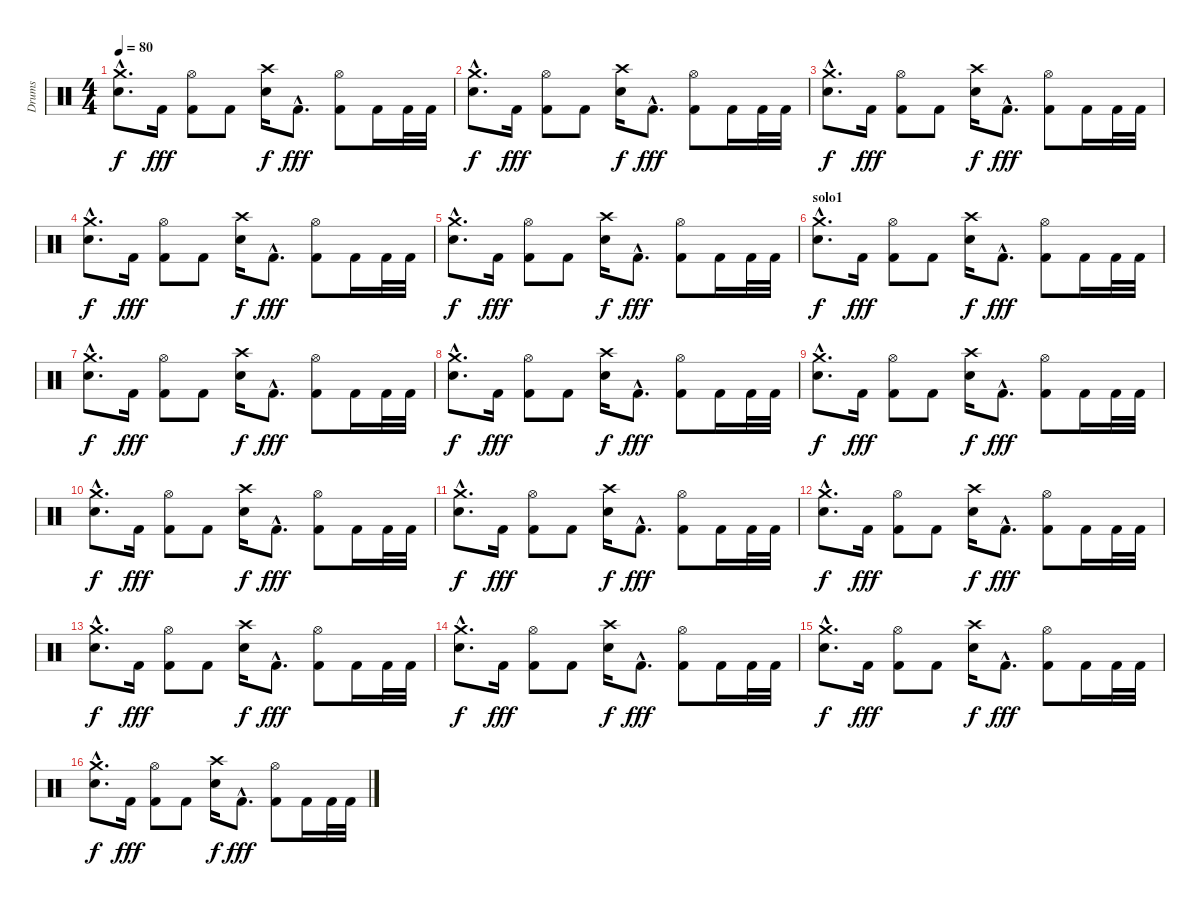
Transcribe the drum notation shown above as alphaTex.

\track ("Drums" "Drums") {instrument percussion}
\staff {score}
\articulation defaults
\ts (4 4)
\tempo 80
\clef neutral
\ks c
("Electric Snare (hit)"{hac} "Crash medium (hit)"{hac}).8{d dy f} "Kick (hit) 2".16{dy fff} ("Hi-Hat (open)" "Kick (hit) 2").8 "Kick (hit) 2".8 ("Crash high (hit)" "Electric Snare (hit)").16{dy f} "Kick (hit) 2"{hac}.8{d dy fff} ("Hi-Hat (open)" "Kick (hit) 2").8 "Kick (hit) 2".16 "Kick (hit) 2".32 "Kick (hit) 2".32 |
("Electric Snare (hit)"{hac} "Crash medium (hit)"{hac}).8{d dy f} "Kick (hit) 2".16{dy fff} ("Hi-Hat (open)" "Kick (hit) 2").8 "Kick (hit) 2".8 ("Crash high (hit)" "Electric Snare (hit)").16{dy f} "Kick (hit) 2"{hac}.8{d dy fff} ("Hi-Hat (open)" "Kick (hit) 2").8 "Kick (hit) 2".16 "Kick (hit) 2".32 "Kick (hit) 2".32 |
("Electric Snare (hit)"{hac} "Crash medium (hit)"{hac}).8{d dy f} "Kick (hit) 2".16{dy fff} ("Hi-Hat (open)" "Kick (hit) 2").8 "Kick (hit) 2".8 ("Crash high (hit)" "Electric Snare (hit)").16{dy f} "Kick (hit) 2"{hac}.8{d dy fff} ("Hi-Hat (open)" "Kick (hit) 2").8 "Kick (hit) 2".16 "Kick (hit) 2".32 "Kick (hit) 2".32 |
("Electric Snare (hit)"{hac} "Crash medium (hit)"{hac}).8{d dy f} "Kick (hit) 2".16{dy fff} ("Hi-Hat (open)" "Kick (hit) 2").8 "Kick (hit) 2".8 ("Crash high (hit)" "Electric Snare (hit)").16{dy f} "Kick (hit) 2"{hac}.8{d dy fff} ("Hi-Hat (open)" "Kick (hit) 2").8 "Kick (hit) 2".16 "Kick (hit) 2".32 "Kick (hit) 2".32 |
("Electric Snare (hit)"{hac} "Crash medium (hit)"{hac}).8{d dy f} "Kick (hit) 2".16{dy fff} ("Hi-Hat (open)" "Kick (hit) 2").8 "Kick (hit) 2".8 ("Crash high (hit)" "Electric Snare (hit)").16{dy f} "Kick (hit) 2"{hac}.8{d dy fff} ("Hi-Hat (open)" "Kick (hit) 2").8 "Kick (hit) 2".16 "Kick (hit) 2".32 "Kick (hit) 2".32 |
\section ("" "solo1")
("Electric Snare (hit)"{hac} "Crash medium (hit)"{hac}).8{d dy f} "Kick (hit) 2".16{dy fff} ("Hi-Hat (open)" "Kick (hit) 2").8 "Kick (hit) 2".8 ("Crash high (hit)" "Electric Snare (hit)").16{dy f} "Kick (hit) 2"{hac}.8{d dy fff} ("Hi-Hat (open)" "Kick (hit) 2").8 "Kick (hit) 2".16 "Kick (hit) 2".32 "Kick (hit) 2".32 |
("Electric Snare (hit)"{hac} "Crash medium (hit)"{hac}).8{d dy f} "Kick (hit) 2".16{dy fff} ("Hi-Hat (open)" "Kick (hit) 2").8 "Kick (hit) 2".8 ("Crash high (hit)" "Electric Snare (hit)").16{dy f} "Kick (hit) 2"{hac}.8{d dy fff} ("Hi-Hat (open)" "Kick (hit) 2").8 "Kick (hit) 2".16 "Kick (hit) 2".32 "Kick (hit) 2".32 |
("Electric Snare (hit)"{hac} "Crash medium (hit)"{hac}).8{d dy f} "Kick (hit) 2".16{dy fff} ("Hi-Hat (open)" "Kick (hit) 2").8 "Kick (hit) 2".8 ("Crash high (hit)" "Electric Snare (hit)").16{dy f} "Kick (hit) 2"{hac}.8{d dy fff} ("Hi-Hat (open)" "Kick (hit) 2").8 "Kick (hit) 2".16 "Kick (hit) 2".32 "Kick (hit) 2".32 |
("Electric Snare (hit)"{hac} "Crash medium (hit)"{hac}).8{d dy f} "Kick (hit) 2".16{dy fff} ("Hi-Hat (open)" "Kick (hit) 2").8 "Kick (hit) 2".8 ("Crash high (hit)" "Electric Snare (hit)").16{dy f} "Kick (hit) 2"{hac}.8{d dy fff} ("Hi-Hat (open)" "Kick (hit) 2").8 "Kick (hit) 2".16 "Kick (hit) 2".32 "Kick (hit) 2".32 |
("Electric Snare (hit)"{hac} "Crash medium (hit)"{hac}).8{d dy f} "Kick (hit) 2".16{dy fff} ("Hi-Hat (open)" "Kick (hit) 2").8 "Kick (hit) 2".8 ("Crash high (hit)" "Electric Snare (hit)").16{dy f} "Kick (hit) 2"{hac}.8{d dy fff} ("Hi-Hat (open)" "Kick (hit) 2").8 "Kick (hit) 2".16 "Kick (hit) 2".32 "Kick (hit) 2".32 |
("Electric Snare (hit)"{hac} "Crash medium (hit)"{hac}).8{d dy f} "Kick (hit) 2".16{dy fff} ("Hi-Hat (open)" "Kick (hit) 2").8 "Kick (hit) 2".8 ("Crash high (hit)" "Electric Snare (hit)").16{dy f} "Kick (hit) 2"{hac}.8{d dy fff} ("Hi-Hat (open)" "Kick (hit) 2").8 "Kick (hit) 2".16 "Kick (hit) 2".32 "Kick (hit) 2".32 |
("Electric Snare (hit)"{hac} "Crash medium (hit)"{hac}).8{d dy f} "Kick (hit) 2".16{dy fff} ("Hi-Hat (open)" "Kick (hit) 2").8 "Kick (hit) 2".8 ("Crash high (hit)" "Electric Snare (hit)").16{dy f} "Kick (hit) 2"{hac}.8{d dy fff} ("Hi-Hat (open)" "Kick (hit) 2").8 "Kick (hit) 2".16 "Kick (hit) 2".32 "Kick (hit) 2".32 |
("Electric Snare (hit)"{hac} "Crash medium (hit)"{hac}).8{d dy f} "Kick (hit) 2".16{dy fff} ("Hi-Hat (open)" "Kick (hit) 2").8 "Kick (hit) 2".8 ("Crash high (hit)" "Electric Snare (hit)").16{dy f} "Kick (hit) 2"{hac}.8{d dy fff} ("Hi-Hat (open)" "Kick (hit) 2").8 "Kick (hit) 2".16 "Kick (hit) 2".32 "Kick (hit) 2".32 |
("Electric Snare (hit)"{hac} "Crash medium (hit)"{hac}).8{d dy f} "Kick (hit) 2".16{dy fff} ("Hi-Hat (open)" "Kick (hit) 2").8 "Kick (hit) 2".8 ("Crash high (hit)" "Electric Snare (hit)").16{dy f} "Kick (hit) 2"{hac}.8{d dy fff} ("Hi-Hat (open)" "Kick (hit) 2").8 "Kick (hit) 2".16 "Kick (hit) 2".32 "Kick (hit) 2".32 |
("Electric Snare (hit)"{hac} "Crash medium (hit)"{hac}).8{d dy f} "Kick (hit) 2".16{dy fff} ("Hi-Hat (open)" "Kick (hit) 2").8 "Kick (hit) 2".8 ("Crash high (hit)" "Electric Snare (hit)").16{dy f} "Kick (hit) 2"{hac}.8{d dy fff} ("Hi-Hat (open)" "Kick (hit) 2").8 "Kick (hit) 2".16 "Kick (hit) 2".32 "Kick (hit) 2".32 |
("Electric Snare (hit)"{hac} "Crash medium (hit)"{hac}).8{d dy f} "Kick (hit) 2".16{dy fff} ("Hi-Hat (open)" "Kick (hit) 2").8 "Kick (hit) 2".8 ("Crash high (hit)" "Electric Snare (hit)").16{dy f} "Kick (hit) 2"{hac}.8{d dy fff} ("Hi-Hat (open)" "Kick (hit) 2").8 "Kick (hit) 2".16 "Kick (hit) 2".32 "Kick (hit) 2".32
